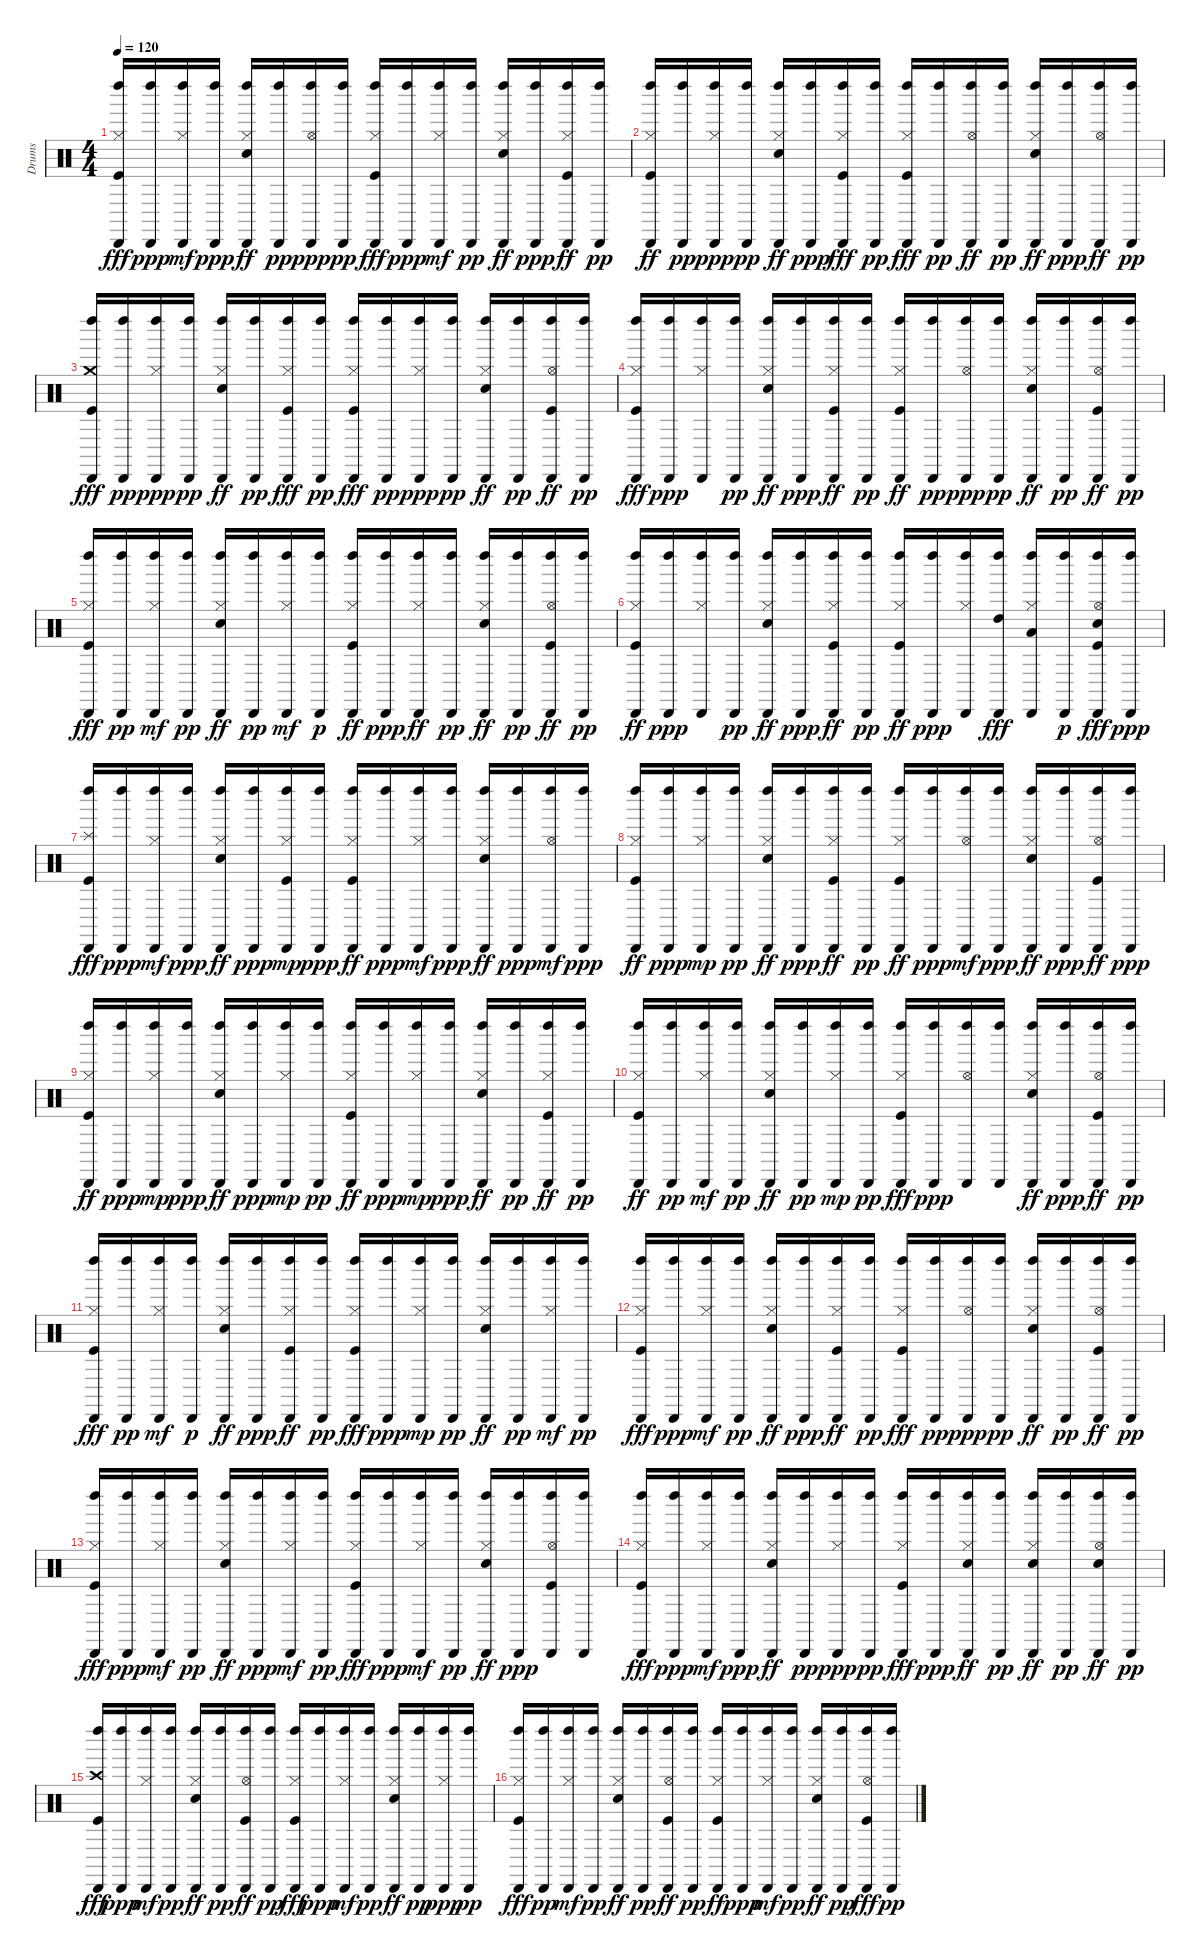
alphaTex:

\track ("Drums" "Drums") {instrument percussion}
\staff {score}
\articulation defaults
\ts (4 4)
\tempo 120
\clef neutral
\ks c
("Left Maraca (hit)" "Cabasa (hit)" "Hi-Hat (closed)" "Kick (hit)").16{dy fff} ("Left Maraca (hit)" "Cabasa (hit)").16{dy ppp} ("Left Maraca (hit)" "Cabasa (hit)" "Hi-Hat (closed)").16{dy mf} ("Left Maraca (hit)" "Cabasa (hit)").16{dy ppp} ("Left Maraca (hit)" "Cabasa (hit)" "Hi-Hat (closed)" "Electric Snare (hit)").16{dy ff} ("Left Maraca (hit)" "Cabasa (hit)").16{dy pp} ("Left Maraca (hit)" "Cabasa (hit)" "Hi-Hat (open)").16{dy ppp} ("Left Maraca (hit)" "Cabasa (hit)").16{dy pp} ("Left Maraca (hit)" "Cabasa (hit)" "Hi-Hat (closed)" "Kick (hit)").16{dy fff} ("Left Maraca (hit)" "Cabasa (hit)").16{dy ppp} ("Left Maraca (hit)" "Cabasa (hit)" "Hi-Hat (closed)").16{dy mf} ("Left Maraca (hit)" "Cabasa (hit)").16{dy pp} ("Left Maraca (hit)" "Cabasa (hit)" "Hi-Hat (closed)" "Electric Snare (hit)").16{dy ff} ("Left Maraca (hit)" "Cabasa (hit)").16{dy ppp} ("Left Maraca (hit)" "Cabasa (hit)" "Hi-Hat (closed)" "Kick (hit)").16{dy ff} ("Left Maraca (hit)" "Cabasa (hit)").16{dy pp} |
("Left Maraca (hit)" "Cabasa (hit)" "Hi-Hat (closed)" "Kick (hit)").16{dy ff} ("Left Maraca (hit)" "Cabasa (hit)").16{dy pp} ("Left Maraca (hit)" "Cabasa (hit)" "Hi-Hat (closed)").16{dy ppp} ("Left Maraca (hit)" "Cabasa (hit)").16{dy pp} ("Left Maraca (hit)" "Cabasa (hit)" "Hi-Hat (closed)" "Electric Snare (hit)").16{dy ff} ("Left Maraca (hit)" "Cabasa (hit)").16{dy ppp} ("Left Maraca (hit)" "Cabasa (hit)" "Hi-Hat (closed)" "Kick (hit)").16{dy fff} ("Left Maraca (hit)" "Cabasa (hit)").16{dy pp} ("Left Maraca (hit)" "Cabasa (hit)" "Hi-Hat (closed)" "Kick (hit)").16{dy fff} ("Left Maraca (hit)" "Cabasa (hit)").16{dy pp} ("Left Maraca (hit)" "Cabasa (hit)" "Hi-Hat (open)").16{dy ff} ("Left Maraca (hit)" "Cabasa (hit)").16{dy pp} ("Left Maraca (hit)" "Cabasa (hit)" "Hi-Hat (closed)" "Electric Snare (hit)").16{dy ff} ("Left Maraca (hit)" "Cabasa (hit)").16{dy ppp} ("Left Maraca (hit)" "Cabasa (hit)" "Hi-Hat (open)").16{dy ff} ("Left Maraca (hit)" "Cabasa (hit)").16{dy pp} |
("Left Maraca (hit)" "Cabasa (hit)" "Crash medium (hit)" "Kick (hit)").16{dy fff} ("Left Maraca (hit)" "Cabasa (hit)").16{dy pp} ("Left Maraca (hit)" "Cabasa (hit)" "Hi-Hat (closed)").16{dy ppp} ("Left Maraca (hit)" "Cabasa (hit)").16{dy pp} ("Left Maraca (hit)" "Cabasa (hit)" "Hi-Hat (closed)" "Electric Snare (hit)").16{dy ff} ("Left Maraca (hit)" "Cabasa (hit)").16{dy pp} ("Left Maraca (hit)" "Cabasa (hit)" "Hi-Hat (closed)" "Kick (hit)").16{dy fff} ("Left Maraca (hit)" "Cabasa (hit)").16{dy pp} ("Left Maraca (hit)" "Cabasa (hit)" "Hi-Hat (closed)" "Kick (hit)").16{dy fff} ("Left Maraca (hit)" "Cabasa (hit)").16{dy pp} ("Left Maraca (hit)" "Cabasa (hit)" "Hi-Hat (closed)").16{dy ppp} ("Left Maraca (hit)" "Cabasa (hit)").16{dy pp} ("Left Maraca (hit)" "Cabasa (hit)" "Hi-Hat (closed)" "Electric Snare (hit)").16{dy ff} ("Left Maraca (hit)" "Cabasa (hit)").16{dy pp} ("Left Maraca (hit)" "Cabasa (hit)" "Hi-Hat (open)" "Kick (hit)").16{dy ff} ("Left Maraca (hit)" "Cabasa (hit)").16{dy pp} |
("Left Maraca (hit)" "Cabasa (hit)" "Hi-Hat (closed)" "Kick (hit)").16{dy fff} ("Left Maraca (hit)" "Cabasa (hit)").16{dy ppp} ("Left Maraca (hit)" "Cabasa (hit)" "Hi-Hat (closed)").16 ("Left Maraca (hit)" "Cabasa (hit)").16{dy pp} ("Left Maraca (hit)" "Cabasa (hit)" "Hi-Hat (closed)" "Electric Snare (hit)").16{dy ff} ("Left Maraca (hit)" "Cabasa (hit)").16{dy ppp} ("Left Maraca (hit)" "Cabasa (hit)" "Hi-Hat (closed)" "Kick (hit)").16{dy ff} ("Left Maraca (hit)" "Cabasa (hit)").16{dy pp} ("Left Maraca (hit)" "Cabasa (hit)" "Hi-Hat (closed)" "Kick (hit)").16{dy ff} ("Left Maraca (hit)" "Cabasa (hit)").16{dy pp} ("Left Maraca (hit)" "Cabasa (hit)" "Hi-Hat (open)").16{dy ppp} ("Left Maraca (hit)" "Cabasa (hit)").16{dy pp} ("Left Maraca (hit)" "Cabasa (hit)" "Hi-Hat (closed)" "Electric Snare (hit)").16{dy ff} ("Left Maraca (hit)" "Cabasa (hit)").16{dy pp} ("Left Maraca (hit)" "Cabasa (hit)" "Hi-Hat (open)" "Kick (hit)").16{dy ff} ("Left Maraca (hit)" "Cabasa (hit)").16{dy pp} |
("Left Maraca (hit)" "Cabasa (hit)" "Hi-Hat (closed)" "Kick (hit)").16{dy fff} ("Left Maraca (hit)" "Cabasa (hit)").16{dy pp} ("Left Maraca (hit)" "Cabasa (hit)" "Hi-Hat (closed)").16{dy mf} ("Left Maraca (hit)" "Cabasa (hit)").16{dy pp} ("Left Maraca (hit)" "Cabasa (hit)" "Hi-Hat (closed)" "Electric Snare (hit)").16{dy ff} ("Left Maraca (hit)" "Cabasa (hit)").16{dy pp} ("Left Maraca (hit)" "Cabasa (hit)" "Hi-Hat (closed)").16{dy mf} ("Left Maraca (hit)" "Cabasa (hit)").16{dy p} ("Left Maraca (hit)" "Cabasa (hit)" "Hi-Hat (closed)" "Kick (hit)").16{dy ff} ("Left Maraca (hit)" "Cabasa (hit)").16{dy ppp} ("Left Maraca (hit)" "Cabasa (hit)" "Hi-Hat (closed)").16{dy ff} ("Left Maraca (hit)" "Cabasa (hit)").16{dy pp} ("Left Maraca (hit)" "Cabasa (hit)" "Hi-Hat (closed)" "Electric Snare (hit)").16{dy ff} ("Left Maraca (hit)" "Cabasa (hit)").16{dy pp} ("Left Maraca (hit)" "Cabasa (hit)" "Hi-Hat (open)" "Kick (hit)").16{dy ff} ("Left Maraca (hit)" "Cabasa (hit)").16{dy pp} |
("Left Maraca (hit)" "Cabasa (hit)" "Hi-Hat (closed)" "Kick (hit)").16{dy ff} ("Left Maraca (hit)" "Cabasa (hit)").16{dy ppp} ("Left Maraca (hit)" "Cabasa (hit)" "Hi-Hat (closed)").16 ("Left Maraca (hit)" "Cabasa (hit)").16{dy pp} ("Left Maraca (hit)" "Cabasa (hit)" "Hi-Hat (closed)" "Electric Snare (hit)").16{dy ff} ("Left Maraca (hit)" "Cabasa (hit)").16{dy ppp} ("Left Maraca (hit)" "Cabasa (hit)" "Hi-Hat (closed)" "Kick (hit)").16{dy ff} ("Left Maraca (hit)" "Cabasa (hit)").16{dy pp} ("Left Maraca (hit)" "Cabasa (hit)" "Hi-Hat (closed)" "Kick (hit)").16{dy ff} ("Left Maraca (hit)" "Cabasa (hit)").16{dy ppp} ("Left Maraca (hit)" "Cabasa (hit)" "Hi-Hat (closed)").16 ("Left Maraca (hit)" "Cabasa (hit)" "High Tom (hit)").16{dy fff} ("Left Maraca (hit)" "Cabasa (hit)" "Hi-Hat (closed)" "Low Tom (hit)").16 ("Left Maraca (hit)" "Cabasa (hit)").16{dy p} ("Left Maraca (hit)" "Cabasa (hit)" "Hi-Hat (open)" "Electric Snare (hit)" "Kick (hit)").16{dy fff} ("Left Maraca (hit)" "Cabasa (hit)").16{dy ppp} |
("Left Maraca (hit)" "Cabasa (hit)" "Splash (hit)" "Kick (hit)").16{dy fff} ("Left Maraca (hit)" "Cabasa (hit)").16{dy ppp} ("Left Maraca (hit)" "Cabasa (hit)" "Hi-Hat (closed)").16{dy mf} ("Left Maraca (hit)" "Cabasa (hit)").16{dy ppp} ("Left Maraca (hit)" "Cabasa (hit)" "Hi-Hat (closed)" "Electric Snare (hit)").16{dy ff} ("Left Maraca (hit)" "Cabasa (hit)").16{dy ppp} ("Left Maraca (hit)" "Cabasa (hit)" "Hi-Hat (closed)" "Kick (hit)").16{dy mp} ("Left Maraca (hit)" "Cabasa (hit)").16{dy ppp} ("Left Maraca (hit)" "Cabasa (hit)" "Hi-Hat (closed)" "Kick (hit)").16{dy ff} ("Left Maraca (hit)" "Cabasa (hit)").16{dy ppp} ("Left Maraca (hit)" "Cabasa (hit)" "Hi-Hat (closed)").16{dy mf} ("Left Maraca (hit)" "Cabasa (hit)").16{dy ppp} ("Left Maraca (hit)" "Cabasa (hit)" "Hi-Hat (closed)" "Electric Snare (hit)").16{dy ff} ("Left Maraca (hit)" "Cabasa (hit)").16{dy ppp} ("Left Maraca (hit)" "Cabasa (hit)" "Hi-Hat (open)").16{dy mf} ("Left Maraca (hit)" "Cabasa (hit)").16{dy ppp} |
("Left Maraca (hit)" "Cabasa (hit)" "Hi-Hat (closed)" "Kick (hit)").16{dy ff} ("Left Maraca (hit)" "Cabasa (hit)").16{dy ppp} ("Left Maraca (hit)" "Cabasa (hit)" "Hi-Hat (closed)").16{dy mp} ("Left Maraca (hit)" "Cabasa (hit)").16{dy pp} ("Left Maraca (hit)" "Cabasa (hit)" "Hi-Hat (closed)" "Electric Snare (hit)").16{dy ff} ("Left Maraca (hit)" "Cabasa (hit)").16{dy ppp} ("Left Maraca (hit)" "Cabasa (hit)" "Hi-Hat (closed)" "Kick (hit)").16{dy ff} ("Left Maraca (hit)" "Cabasa (hit)").16{dy pp} ("Left Maraca (hit)" "Cabasa (hit)" "Hi-Hat (closed)" "Kick (hit)").16{dy ff} ("Left Maraca (hit)" "Cabasa (hit)").16{dy ppp} ("Left Maraca (hit)" "Cabasa (hit)" "Hi-Hat (open)").16{dy mf} ("Left Maraca (hit)" "Cabasa (hit)").16{dy ppp} ("Left Maraca (hit)" "Cabasa (hit)" "Hi-Hat (closed)" "Electric Snare (hit)").16{dy ff} ("Left Maraca (hit)" "Cabasa (hit)").16{dy ppp} ("Left Maraca (hit)" "Cabasa (hit)" "Hi-Hat (open)" "Kick (hit)").16{dy ff} ("Left Maraca (hit)" "Cabasa (hit)").16{dy ppp} |
("Left Maraca (hit)" "Cabasa (hit)" "Hi-Hat (closed)" "Kick (hit)").16{dy ff} ("Left Maraca (hit)" "Cabasa (hit)").16{dy ppp} ("Left Maraca (hit)" "Cabasa (hit)" "Hi-Hat (closed)").16{dy mp} ("Left Maraca (hit)" "Cabasa (hit)").16{dy ppp} ("Left Maraca (hit)" "Cabasa (hit)" "Hi-Hat (closed)" "Electric Snare (hit)").16{dy ff} ("Left Maraca (hit)" "Cabasa (hit)").16{dy ppp} ("Left Maraca (hit)" "Cabasa (hit)" "Hi-Hat (closed)").16{dy mp} ("Left Maraca (hit)" "Cabasa (hit)").16{dy pp} ("Left Maraca (hit)" "Cabasa (hit)" "Hi-Hat (closed)" "Kick (hit)").16{dy ff} ("Left Maraca (hit)" "Cabasa (hit)").16{dy ppp} ("Left Maraca (hit)" "Cabasa (hit)" "Hi-Hat (closed)").16{dy mp} ("Left Maraca (hit)" "Cabasa (hit)").16{dy ppp} ("Left Maraca (hit)" "Cabasa (hit)" "Hi-Hat (closed)" "Electric Snare (hit)").16{dy ff} ("Left Maraca (hit)" "Cabasa (hit)").16{dy pp} ("Left Maraca (hit)" "Cabasa (hit)" "Hi-Hat (closed)" "Kick (hit)").16{dy ff} ("Left Maraca (hit)" "Cabasa (hit)").16{dy pp} |
("Left Maraca (hit)" "Cabasa (hit)" "Hi-Hat (closed)" "Kick (hit)").16{dy ff} ("Left Maraca (hit)" "Cabasa (hit)").16{dy pp} ("Left Maraca (hit)" "Cabasa (hit)" "Hi-Hat (closed)").16{dy mf} ("Left Maraca (hit)" "Cabasa (hit)").16{dy pp} ("Left Maraca (hit)" "Cabasa (hit)" "Hi-Hat (closed)" "Electric Snare (hit)").16{dy ff} ("Left Maraca (hit)" "Cabasa (hit)").16{dy pp} ("Left Maraca (hit)" "Cabasa (hit)" "Hi-Hat (closed)").16{dy mp} ("Left Maraca (hit)" "Cabasa (hit)").16{dy pp} ("Left Maraca (hit)" "Cabasa (hit)" "Hi-Hat (closed)" "Kick (hit)").16{dy fff} ("Left Maraca (hit)" "Cabasa (hit)").16{dy ppp} ("Left Maraca (hit)" "Cabasa (hit)" "Hi-Hat (open)").16 ("Left Maraca (hit)" "Cabasa (hit)").16 ("Left Maraca (hit)" "Cabasa (hit)" "Hi-Hat (closed)" "Electric Snare (hit)").16{dy ff} ("Left Maraca (hit)" "Cabasa (hit)").16{dy ppp} ("Left Maraca (hit)" "Cabasa (hit)" "Hi-Hat (open)" "Kick (hit)").16{dy ff} ("Left Maraca (hit)" "Cabasa (hit)").16{dy pp} |
("Left Maraca (hit)" "Cabasa (hit)" "Hi-Hat (closed)" "Kick (hit)").16{dy fff} ("Left Maraca (hit)" "Cabasa (hit)").16{dy pp} ("Left Maraca (hit)" "Cabasa (hit)" "Hi-Hat (closed)").16{dy mf} ("Left Maraca (hit)" "Cabasa (hit)").16{dy p} ("Left Maraca (hit)" "Cabasa (hit)" "Hi-Hat (closed)" "Electric Snare (hit)").16{dy ff} ("Left Maraca (hit)" "Cabasa (hit)").16{dy ppp} ("Left Maraca (hit)" "Cabasa (hit)" "Hi-Hat (closed)" "Kick (hit)").16{dy ff} ("Left Maraca (hit)" "Cabasa (hit)").16{dy pp} ("Left Maraca (hit)" "Cabasa (hit)" "Hi-Hat (closed)" "Kick (hit)").16{dy fff} ("Left Maraca (hit)" "Cabasa (hit)").16{dy ppp} ("Left Maraca (hit)" "Cabasa (hit)" "Hi-Hat (closed)").16{dy mp} ("Left Maraca (hit)" "Cabasa (hit)").16{dy pp} ("Left Maraca (hit)" "Cabasa (hit)" "Hi-Hat (closed)" "Electric Snare (hit)").16{dy ff} ("Left Maraca (hit)" "Cabasa (hit)").16{dy pp} ("Left Maraca (hit)" "Cabasa (hit)" "Hi-Hat (closed)").16{dy mf} ("Left Maraca (hit)" "Cabasa (hit)").16{dy pp} |
("Left Maraca (hit)" "Cabasa (hit)" "Hi-Hat (closed)" "Kick (hit)").16{dy fff} ("Left Maraca (hit)" "Cabasa (hit)").16{dy ppp} ("Left Maraca (hit)" "Cabasa (hit)" "Hi-Hat (closed)").16{dy mf} ("Left Maraca (hit)" "Cabasa (hit)").16{dy pp} ("Left Maraca (hit)" "Cabasa (hit)" "Hi-Hat (closed)" "Electric Snare (hit)").16{dy ff} ("Left Maraca (hit)" "Cabasa (hit)").16{dy ppp} ("Left Maraca (hit)" "Cabasa (hit)" "Hi-Hat (closed)" "Kick (hit)").16{dy ff} ("Left Maraca (hit)" "Cabasa (hit)").16{dy pp} ("Left Maraca (hit)" "Cabasa (hit)" "Hi-Hat (closed)" "Kick (hit)").16{dy fff} ("Left Maraca (hit)" "Cabasa (hit)").16{dy pp} ("Left Maraca (hit)" "Cabasa (hit)" "Hi-Hat (open)").16{dy ppp} ("Left Maraca (hit)" "Cabasa (hit)").16{dy pp} ("Left Maraca (hit)" "Cabasa (hit)" "Hi-Hat (closed)" "Electric Snare (hit)").16{dy ff} ("Left Maraca (hit)" "Cabasa (hit)").16{dy pp} ("Left Maraca (hit)" "Cabasa (hit)" "Hi-Hat (open)" "Kick (hit)").16{dy ff} ("Left Maraca (hit)" "Cabasa (hit)").16{dy pp} |
("Left Maraca (hit)" "Cabasa (hit)" "Hi-Hat (closed)" "Kick (hit)").16{dy fff} ("Left Maraca (hit)" "Cabasa (hit)").16{dy ppp} ("Left Maraca (hit)" "Cabasa (hit)" "Hi-Hat (closed)").16{dy mf} ("Left Maraca (hit)" "Cabasa (hit)").16{dy pp} ("Left Maraca (hit)" "Cabasa (hit)" "Hi-Hat (closed)" "Electric Snare (hit)").16{dy ff} ("Left Maraca (hit)" "Cabasa (hit)").16{dy ppp} ("Left Maraca (hit)" "Cabasa (hit)" "Hi-Hat (closed)").16{dy mf} ("Left Maraca (hit)" "Cabasa (hit)").16{dy pp} ("Left Maraca (hit)" "Cabasa (hit)" "Hi-Hat (closed)" "Kick (hit)").16{dy fff} ("Left Maraca (hit)" "Cabasa (hit)").16{dy ppp} ("Left Maraca (hit)" "Cabasa (hit)" "Hi-Hat (closed)").16{dy mf} ("Left Maraca (hit)" "Cabasa (hit)").16{dy pp} ("Left Maraca (hit)" "Cabasa (hit)" "Hi-Hat (closed)" "Electric Snare (hit)").16{dy ff} ("Left Maraca (hit)" "Cabasa (hit)").16{dy ppp} ("Left Maraca (hit)" "Cabasa (hit)" "Hi-Hat (open)" "Kick (hit)").16 ("Left Maraca (hit)" "Cabasa (hit)").16 |
("Left Maraca (hit)" "Cabasa (hit)" "Hi-Hat (closed)" "Kick (hit)").16{dy fff} ("Left Maraca (hit)" "Cabasa (hit)").16{dy ppp} ("Left Maraca (hit)" "Cabasa (hit)" "Hi-Hat (closed)").16{dy mf} ("Left Maraca (hit)" "Cabasa (hit)").16{dy ppp} ("Left Maraca (hit)" "Cabasa (hit)" "Hi-Hat (closed)" "Electric Snare (hit)").16{dy ff} ("Left Maraca (hit)" "Cabasa (hit)").16{dy pp} ("Left Maraca (hit)" "Cabasa (hit)" "Hi-Hat (closed)").16{dy ppp} ("Left Maraca (hit)" "Cabasa (hit)").16{dy pp} ("Left Maraca (hit)" "Cabasa (hit)" "Hi-Hat (closed)" "Kick (hit)").16{dy fff} ("Left Maraca (hit)" "Cabasa (hit)").16{dy ppp} ("Left Maraca (hit)" "Cabasa (hit)" "Hi-Hat (closed)" "Electric Snare (hit)").16{dy ff} ("Left Maraca (hit)" "Cabasa (hit)").16{dy pp} ("Left Maraca (hit)" "Cabasa (hit)" "Hi-Hat (closed)" "Electric Snare (hit)").16{dy ff} ("Left Maraca (hit)" "Cabasa (hit)").16{dy pp} ("Left Maraca (hit)" "Cabasa (hit)" "Hi-Hat (open)" "Electric Snare (hit)").16{dy ff} ("Left Maraca (hit)" "Cabasa (hit)").16{dy pp} |
("Left Maraca (hit)" "Cabasa (hit)" "Crash high (hit)" "Kick (hit)").16{dy fff} ("Left Maraca (hit)" "Cabasa (hit)").16{dy ppp} ("Left Maraca (hit)" "Cabasa (hit)" "Hi-Hat (closed)").16{dy mf} ("Left Maraca (hit)" "Cabasa (hit)").16{dy pp} ("Left Maraca (hit)" "Cabasa (hit)" "Hi-Hat (closed)" "Electric Snare (hit)").16{dy ff} ("Left Maraca (hit)" "Cabasa (hit)").16{dy pp} ("Left Maraca (hit)" "Cabasa (hit)" "Hi-Hat (open)" "Kick (hit)").16{dy ff} ("Left Maraca (hit)" "Cabasa (hit)").16{dy pp} ("Left Maraca (hit)" "Cabasa (hit)" "Hi-Hat (closed)" "Kick (hit)").16{dy fff} ("Left Maraca (hit)" "Cabasa (hit)").16{dy ppp} ("Left Maraca (hit)" "Cabasa (hit)" "Hi-Hat (closed)").16{dy mf} ("Left Maraca (hit)" "Cabasa (hit)").16{dy pp} ("Left Maraca (hit)" "Cabasa (hit)" "Hi-Hat (closed)" "Electric Snare (hit)").16{dy ff} ("Left Maraca (hit)" "Cabasa (hit)").16{dy pp} ("Left Maraca (hit)" "Cabasa (hit)" "Hi-Hat (closed)").16{dy ppp} ("Left Maraca (hit)" "Cabasa (hit)").16{dy pp} |
("Left Maraca (hit)" "Cabasa (hit)" "Hi-Hat (closed)" "Kick (hit)").16{dy fff} ("Left Maraca (hit)" "Cabasa (hit)").16{dy pp} ("Left Maraca (hit)" "Cabasa (hit)" "Hi-Hat (closed)").16{dy mf} ("Left Maraca (hit)" "Cabasa (hit)").16{dy pp} ("Left Maraca (hit)" "Cabasa (hit)" "Hi-Hat (closed)" "Electric Snare (hit)").16{dy ff} ("Left Maraca (hit)" "Cabasa (hit)").16{dy pp} ("Left Maraca (hit)" "Cabasa (hit)" "Hi-Hat (open)" "Kick (hit)").16{dy ff} ("Left Maraca (hit)" "Cabasa (hit)").16{dy pp} ("Left Maraca (hit)" "Cabasa (hit)" "Hi-Hat (closed)" "Kick (hit)").16{dy ff} ("Left Maraca (hit)" "Cabasa (hit)").16{dy ppp} ("Left Maraca (hit)" "Cabasa (hit)" "Hi-Hat (closed)").16{dy mf} ("Left Maraca (hit)" "Cabasa (hit)").16{dy pp} ("Left Maraca (hit)" "Cabasa (hit)" "Hi-Hat (closed)" "Electric Snare (hit)").16{dy ff} ("Left Maraca (hit)" "Cabasa (hit)").16{dy pp} ("Left Maraca (hit)" "Cabasa (hit)" "Hi-Hat (open)" "Kick (hit)").16{dy fff} ("Left Maraca (hit)" "Cabasa (hit)").16{dy pp}
